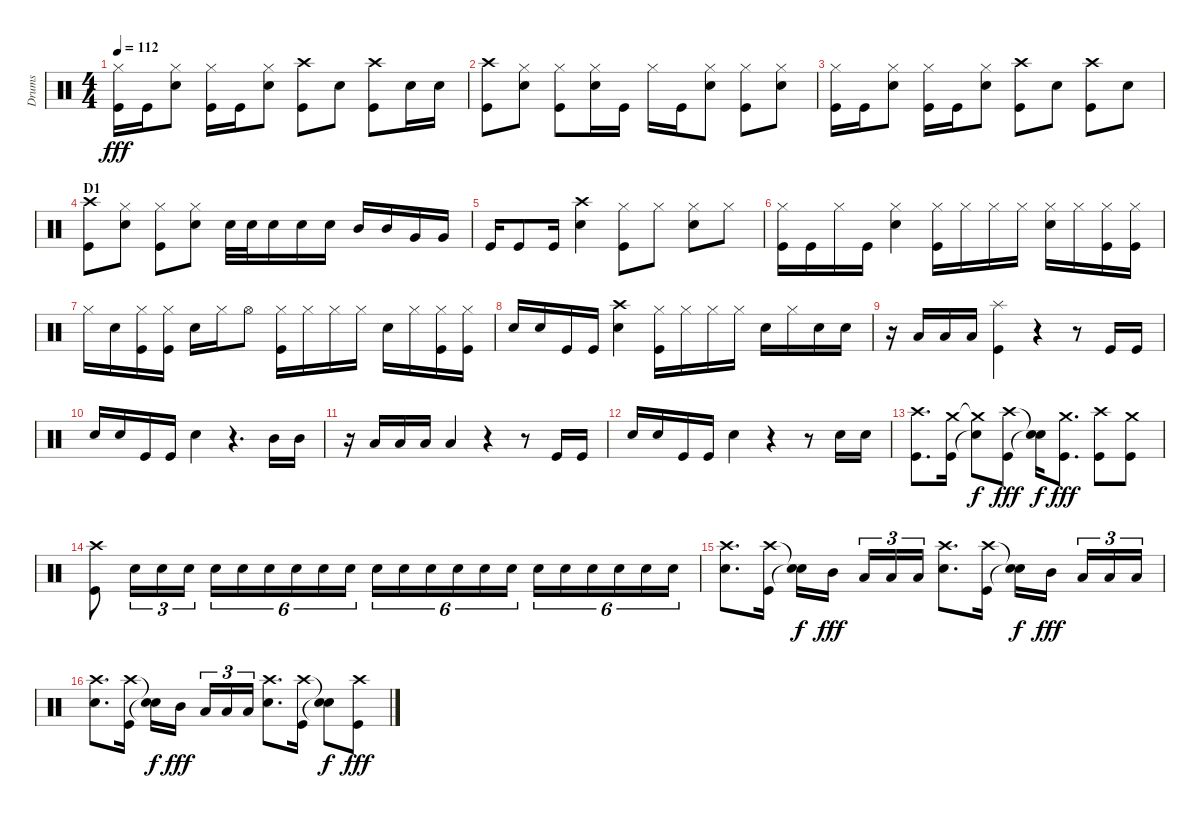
\track ("Drums" "Drums") {instrument percussion}
\staff {score}
\articulation defaults
\ts (4 4)
\tempo 112
\clef neutral
\ks c
("Hi-Hat (closed)" "Kick (hit)").16{dy fff} "Kick (hit)".16 ("Hi-Hat (closed)" "Snare (hit) 2").8 ("Hi-Hat (closed)" "Kick (hit)").16 "Kick (hit)".16 ("Hi-Hat (closed)" "Snare (hit) 2").8 ("Crash high (hit)" "Kick (hit)").8 "Snare (hit) 2".8 ("Crash high (hit)" "Kick (hit)").8 "Snare (hit) 2".16 "Snare (hit) 2".16 |
("Crash high (hit)" "Kick (hit)").8 ("Hi-Hat (closed)" "Snare (hit) 2").8 ("Hi-Hat (closed)" "Kick (hit)").8 ("Hi-Hat (closed)" "Snare (hit) 2").16 "Kick (hit)".16 "Hi-Hat (closed)".16 "Kick (hit)".16 ("Hi-Hat (closed)" "Snare (hit) 2").8 ("Hi-Hat (closed)" "Kick (hit)").8 ("Hi-Hat (closed)" "Snare (hit) 2").8 |
("Hi-Hat (closed)" "Kick (hit)").16 "Kick (hit)".16 ("Hi-Hat (closed)" "Snare (hit) 2").8 ("Hi-Hat (closed)" "Kick (hit)").16 "Kick (hit)".16 ("Hi-Hat (closed)" "Snare (hit) 2").8 ("Crash high (hit)" "Kick (hit)").8 "Snare (hit) 2".8 ("Crash high (hit)" "Kick (hit)").8 "Snare (hit) 2".8 |
\section ("" "D1")
("Crash high (hit)" "Kick (hit)").8 ("Hi-Hat (closed)" "Snare (hit) 2").8 ("Hi-Hat (closed)" "Kick (hit)").8 ("Hi-Hat (closed)" "Snare (hit) 2").8 "Snare (hit) 2".32 "Snare (hit) 2".32 "Snare (hit) 2".16 "Snare (hit) 2".16 "Snare (hit) 2".16 "Mid Tom (hit)".16 "Mid Tom (hit)".16 "Very Low Tom (hit)".16 "Very Low Tom (hit)".16 |
"Kick (hit)".16 "Kick (hit)".8 "Kick (hit)".16 ("Crash high (hit)" "Snare (hit) 2").4 ("Hi-Hat (closed)" "Kick (hit)").8 "Hi-Hat (closed)".8 ("Hi-Hat (closed)" "Snare (hit) 2").8 "Hi-Hat (closed)".8 |
("Hi-Hat (closed)" "Kick (hit)").16 "Kick (hit)".16 "Hi-Hat (closed)".16 "Kick (hit)".16 ("Hi-Hat (closed)" "Snare (hit) 2").4 ("Hi-Hat (closed)" "Kick (hit)").16 "Hi-Hat (closed)".16 "Hi-Hat (closed)".16 "Hi-Hat (closed)".16 ("Hi-Hat (closed)" "Snare (hit) 2").16 "Hi-Hat (closed)".16 ("Hi-Hat (closed)" "Kick (hit)").16 ("Hi-Hat (closed)" "Kick (hit)").16 |
"Hi-Hat (closed)".16 "Snare (hit) 2".16 ("Hi-Hat (closed)" "Kick (hit)").16 ("Hi-Hat (closed)" "Kick (hit)").16 "Snare (hit) 2".16 "Hi-Hat (closed)".16 "Hi-Hat (open)".8 ("Hi-Hat (closed)" "Kick (hit)").16 "Hi-Hat (closed)".16 "Hi-Hat (closed)".16 "Hi-Hat (closed)".16 "Snare (hit) 2".16 "Hi-Hat (closed)".16 ("Hi-Hat (closed)" "Kick (hit)").16 ("Hi-Hat (closed)" "Kick (hit)").16 |
"Snare (hit) 2".16 "Snare (hit) 2".16 "Kick (hit)".16 "Kick (hit)".16 ("Crash high (hit)" "Snare (hit) 2").4 ("Hi-Hat (closed)" "Kick (hit)").16 "Hi-Hat (closed)".16 "Hi-Hat (closed)".16 "Hi-Hat (closed)".16 "Snare (hit) 2".16 "Hi-Hat (closed)".16 "Snare (hit) 2".16 "Snare (hit) 2".16 |
r.16 "Low Tom (hit)".16 "Low Tom (hit)".16 "Low Tom (hit)".16 ("Splash (hit)" "Kick (hit)").4 r.4 r.8 "Kick (hit)".16 "Kick (hit)".16 |
"Snare (hit) 2".16 "Snare (hit) 2".16 "Kick (hit)".16 "Kick (hit)".16 "Snare (hit) 2".4 r.4{d} "Mid Tom (hit)".16 "Mid Tom (hit)".16 |
r.16 "Low Tom (hit)".16 "Low Tom (hit)".16 "Low Tom (hit)".16 "Low Tom (hit)".4 r.4 r.8 "Kick (hit)".16 "Kick (hit)".16 |
"Snare (hit) 2".16 "Snare (hit) 2".16 "Kick (hit)".16 "Kick (hit)".16 "Snare (hit) 2".4 r.4 r.8 "Snare (hit) 2".16 "Snare (hit) 2".16 |
("Crash high (hit)" "Kick (hit)").8{d} ("Crash medium (hit)" "Kick (hit)").16 ("Crash medium (hit)"{t} "Snare (hit)"{t}).8{dy f} ("Crash high (hit)" "Kick (hit)").8{dy fff} ("Snare (hit)"{t} "Snare (hit)"{t}).16{dy f} ("Crash medium (hit)" "Kick (hit)").8{d dy fff} ("Crash high (hit)" "Kick (hit)").8 ("Crash medium (hit)" "Kick (hit)").8 |
("Crash high (hit)" "Kick (hit)").8 "Snare (hit) 2".16{tu (3 2)} "Snare (hit) 2".16{tu (3 2)} "Snare (hit) 2".16{tu (3 2)} "Snare (hit) 2".16{tu (6 4)} "Snare (hit) 2".16{tu (6 4)} "Snare (hit) 2".16{tu (6 4)} "Snare (hit) 2".16{tu (6 4)} "Snare (hit) 2".16{tu (6 4)} "Snare (hit) 2".16{tu (6 4)} "Snare (hit) 2".16{tu (6 4)} "Snare (hit) 2".16{tu (6 4)} "Snare (hit) 2".16{tu (6 4)} "Snare (hit) 2".16{tu (6 4)} "Snare (hit) 2".16{tu (6 4)} "Snare (hit) 2".16{tu (6 4)} "Snare (hit) 2".16{tu (6 4)} "Snare (hit) 2".16{tu (6 4)} "Snare (hit) 2".16{tu (6 4)} "Snare (hit) 2".16{tu (6 4)} "Snare (hit) 2".16{tu (6 4)} "Snare (hit) 2".16{tu (6 4)} |
("Crash high (hit)" "Snare (hit) 2").8{d} ("Crash high (hit)" "Kick (hit)").16 ("Snare (hit)"{t} "Snare (hit)"{t}).16{dy f} "Mid Tom (hit)".16{dy fff} "Low Tom (hit)".16{tu (3 2)} "Low Tom (hit)".16{tu (3 2)} "Low Tom (hit)".16{tu (3 2)} ("Crash high (hit)" "Snare (hit) 2").8{d} ("Crash high (hit)" "Kick (hit)").16 ("Snare (hit)"{t} "Snare (hit)"{t}).16{dy f} "Mid Tom (hit)".16{dy fff} "Low Tom (hit)".16{tu (3 2)} "Low Tom (hit)".16{tu (3 2)} "Low Tom (hit)".16{tu (3 2)} |
("Crash high (hit)" "Snare (hit) 2").8{d} ("Crash high (hit)" "Kick (hit)").16 ("Snare (hit)"{t} "Snare (hit)"{t}).16{dy f} "Mid Tom (hit)".16{dy fff} "Low Tom (hit)".16{tu (3 2)} "Low Tom (hit)".16{tu (3 2)} "Low Tom (hit)".16{tu (3 2)} ("Crash high (hit)" "Snare (hit) 2").8{d} ("Crash high (hit)" "Kick (hit)").16 ("Snare (hit)"{t} "Snare (hit)"{t}).8{dy f} ("Crash high (hit)" "Kick (hit)").8{dy fff}
